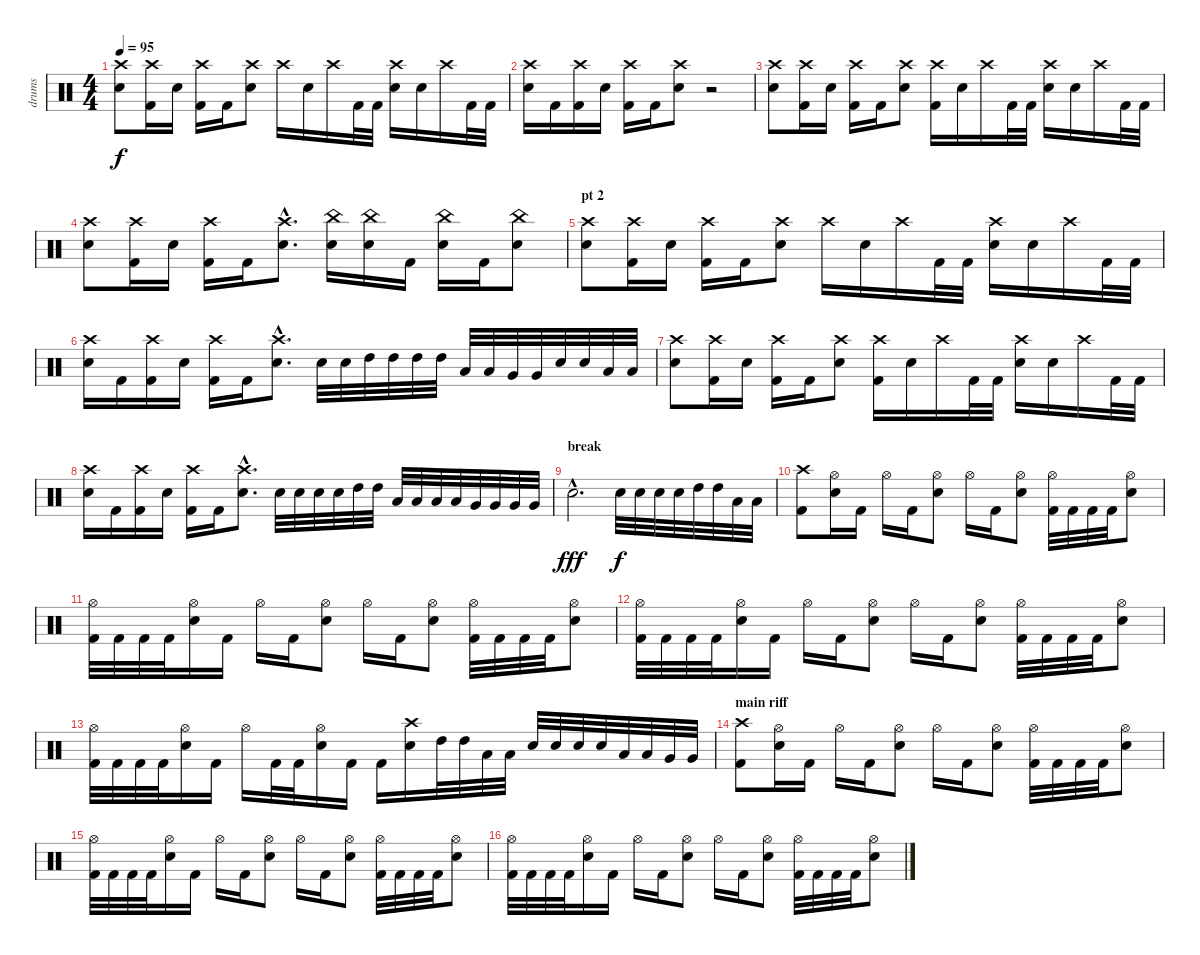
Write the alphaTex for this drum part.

\track ("drums" "drums") {instrument percussion}
\staff {score}
\articulation defaults
\ts (4 4)
\section ("" "")
\tempo 95
\clef neutral
\ks c
("Crash high (hit)" "Electric Snare (hit)").8{dy f} ("Crash high (hit)" "Kick (hit) 2").16 "Electric Snare (hit)".16 ("Crash high (hit)" "Kick (hit) 2").16 "Kick (hit) 2".16 ("Crash high (hit)" "Electric Snare (hit)").8 "Crash high (hit)".16 "Electric Snare (hit)".16 "Crash high (hit)".16 "Kick (hit) 2".32 "Kick (hit) 2".32 ("Crash high (hit)" "Electric Snare (hit)").16 "Electric Snare (hit)".16 "Crash high (hit)".16 "Kick (hit) 2".32 "Kick (hit) 2".32 |
("Crash high (hit)" "Electric Snare (hit)").16 "Kick (hit) 2".16 ("Crash high (hit)" "Kick (hit) 2").16 "Electric Snare (hit)".16 ("Crash high (hit)" "Kick (hit) 2").16 "Kick (hit) 2".16 ("Crash high (hit)" "Electric Snare (hit)").8 r.2 |
("Crash high (hit)" "Electric Snare (hit)").8 ("Crash high (hit)" "Kick (hit) 2").16 "Electric Snare (hit)".16 ("Crash high (hit)" "Kick (hit) 2").16 "Kick (hit) 2".16 ("Crash high (hit)" "Electric Snare (hit)").8 ("Crash high (hit)" "Kick (hit) 2").16 "Electric Snare (hit)".16 "Crash high (hit)".16 "Kick (hit) 2".32 "Kick (hit) 2".32 ("Crash high (hit)" "Electric Snare (hit)").16 "Electric Snare (hit)".16 "Crash high (hit)".16 "Kick (hit) 2".32 "Kick (hit) 2".32 |
("Crash high (hit)" "Electric Snare (hit)").8 ("Crash high (hit)" "Kick (hit) 2").16 "Electric Snare (hit)".16 ("Crash high (hit)" "Kick (hit) 2").16 "Kick (hit) 2".16 ("Crash high (hit)"{hac} "Electric Snare (hit)"{hac}).8{d} ("China (hit)" "Electric Snare (hit)").16 ("China (hit)" "Electric Snare (hit)").16 "Kick (hit) 2".16 ("China (hit)" "Electric Snare (hit)").16 "Kick (hit) 2".16 ("China (hit)" "Electric Snare (hit)").8 |
\section ("" "pt 2")
("Crash high (hit)" "Electric Snare (hit)").8 ("Crash high (hit)" "Kick (hit) 2").16 "Electric Snare (hit)".16 ("Crash high (hit)" "Kick (hit) 2").16 "Kick (hit) 2".16 ("Crash high (hit)" "Electric Snare (hit)").8 "Crash high (hit)".16 "Electric Snare (hit)".16 "Crash high (hit)".16 "Kick (hit) 2".32 "Kick (hit) 2".32 ("Crash high (hit)" "Electric Snare (hit)").16 "Electric Snare (hit)".16 "Crash high (hit)".16 "Kick (hit) 2".32 "Kick (hit) 2".32 |
("Crash high (hit)" "Electric Snare (hit)").16 "Kick (hit) 2".16 ("Crash high (hit)" "Kick (hit) 2").16 "Electric Snare (hit)".16 ("Crash high (hit)" "Kick (hit) 2").16 "Kick (hit) 2".16 ("Crash high (hit)"{hac} "Electric Snare (hit)"{hac}).8{d} "Electric Snare (hit)".32 "Electric Snare (hit)".32 "High Tom (hit)".32 "High Tom (hit)".32 "High Tom (hit)".32 "High Tom (hit)".32 "Low Tom (hit)".32 "Low Tom (hit)".32 "Very Low Tom (hit)".32 "Very Low Tom (hit)".32 "Electric Snare (hit)".32 "Electric Snare (hit)".32 "Low Tom (hit)".32 "Low Tom (hit)".32 |
("Crash high (hit)" "Electric Snare (hit)").8 ("Crash high (hit)" "Kick (hit) 2").16 "Electric Snare (hit)".16 ("Crash high (hit)" "Kick (hit) 2").16 "Kick (hit) 2".16 ("Crash high (hit)" "Electric Snare (hit)").8 ("Crash high (hit)" "Kick (hit) 2").16 "Electric Snare (hit)".16 "Crash high (hit)".16 "Kick (hit) 2".32 "Kick (hit) 2".32 ("Crash high (hit)" "Electric Snare (hit)").16 "Electric Snare (hit)".16 "Crash high (hit)".16 "Kick (hit) 2".32 "Kick (hit) 2".32 |
("Crash high (hit)" "Electric Snare (hit)").16 "Kick (hit) 2".16 ("Crash high (hit)" "Kick (hit) 2").16 "Electric Snare (hit)".16 ("Crash high (hit)" "Kick (hit) 2").16 "Kick (hit) 2".16 ("Crash high (hit)"{hac} "Electric Snare (hit)"{hac}).8{d} "Electric Snare (hit)".32 "Electric Snare (hit)".32 "Electric Snare (hit)".32 "Electric Snare (hit)".32 "High Tom (hit)".32 "High Tom (hit)".32 "Low Tom (hit)".32 "Low Tom (hit)".32 "Low Tom (hit)".32 "Low Tom (hit)".32 "Very Low Tom (hit)".32 "Very Low Tom (hit)".32 "Very Low Tom (hit)".32 "Very Low Tom (hit)".32 |
\section ("" "break")
"Electric Snare (hit)"{hac}.2{d dy fff} "Electric Snare (hit)".32{dy f} "Electric Snare (hit)".32 "Electric Snare (hit)".32 "Electric Snare (hit)".32 "High Tom (hit)".32 "High Tom (hit)".32 "Low Tom (hit)".32 "Low Tom (hit)".32 |
\section ("" "")
("Crash high (hit)" "Kick (hit) 2").8 ("Hi-Hat (open)" "Electric Snare (hit)").16 "Kick (hit) 2".16 "Hi-Hat (open)".16 "Kick (hit) 2".16 ("Hi-Hat (open)" "Electric Snare (hit)").8 "Hi-Hat (open)".16 "Kick (hit) 2".16 ("Hi-Hat (open)" "Electric Snare (hit)").8 ("Hi-Hat (open)" "Kick (hit) 2").32 "Kick (hit) 2".32 "Kick (hit) 2".32 "Kick (hit) 2".32 ("Hi-Hat (open)" "Electric Snare (hit)").8 |
("Hi-Hat (open)" "Kick (hit) 2").32 "Kick (hit) 2".32 "Kick (hit) 2".32 "Kick (hit) 2".32 ("Hi-Hat (open)" "Electric Snare (hit)").16 "Kick (hit) 2".16 "Hi-Hat (open)".16 "Kick (hit) 2".16 ("Hi-Hat (open)" "Electric Snare (hit)").8 "Hi-Hat (open)".16 "Kick (hit) 2".16 ("Hi-Hat (open)" "Electric Snare (hit)").8 ("Hi-Hat (open)" "Kick (hit) 2").32 "Kick (hit) 2".32 "Kick (hit) 2".32 "Kick (hit) 2".32 ("Hi-Hat (open)" "Electric Snare (hit)").8 |
("Hi-Hat (open)" "Kick (hit) 2").32 "Kick (hit) 2".32 "Kick (hit) 2".32 "Kick (hit) 2".32 ("Hi-Hat (open)" "Electric Snare (hit)").16 "Kick (hit) 2".16 "Hi-Hat (open)".16 "Kick (hit) 2".16 ("Hi-Hat (open)" "Electric Snare (hit)").8 "Hi-Hat (open)".16 "Kick (hit) 2".16 ("Hi-Hat (open)" "Electric Snare (hit)").8 ("Hi-Hat (open)" "Kick (hit) 2").32 "Kick (hit) 2".32 "Kick (hit) 2".32 "Kick (hit) 2".32 ("Hi-Hat (open)" "Electric Snare (hit)").8 |
("Hi-Hat (open)" "Kick (hit) 2").32 "Kick (hit) 2".32 "Kick (hit) 2".32 "Kick (hit) 2".32 ("Hi-Hat (open)" "Electric Snare (hit)").16 "Kick (hit) 2".16 "Hi-Hat (open)".16 "Kick (hit) 2".32 "Kick (hit) 2".32 ("Hi-Hat (open)" "Electric Snare (hit)").16 "Kick (hit) 2".16 "Kick (hit) 2".16 ("Crash high (hit)" "Electric Snare (hit)").16 "High Tom (hit)".32 "High Tom (hit)".32 "Low Tom (hit)".32 "Low Tom (hit)".32 "Electric Snare (hit)".32 "Electric Snare (hit)".32 "Electric Snare (hit)".32 "Electric Snare (hit)".32 "Low Tom (hit)".32 "Low Tom (hit)".32 "Very Low Tom (hit)".32 "Very Low Tom (hit)".32 |
\section ("" "main riff")
("Crash high (hit)" "Kick (hit) 2").8 ("Hi-Hat (open)" "Electric Snare (hit)").16 "Kick (hit) 2".16 "Hi-Hat (open)".16 "Kick (hit) 2".16 ("Hi-Hat (open)" "Electric Snare (hit)").8 "Hi-Hat (open)".16 "Kick (hit) 2".16 ("Hi-Hat (open)" "Electric Snare (hit)").8 ("Hi-Hat (open)" "Kick (hit) 2").32 "Kick (hit) 2".32 "Kick (hit) 2".32 "Kick (hit) 2".32 ("Hi-Hat (open)" "Electric Snare (hit)").8 |
("Hi-Hat (open)" "Kick (hit) 2").32 "Kick (hit) 2".32 "Kick (hit) 2".32 "Kick (hit) 2".32 ("Hi-Hat (open)" "Electric Snare (hit)").16 "Kick (hit) 2".16 "Hi-Hat (open)".16 "Kick (hit) 2".16 ("Hi-Hat (open)" "Electric Snare (hit)").8 "Hi-Hat (open)".16 "Kick (hit) 2".16 ("Hi-Hat (open)" "Electric Snare (hit)").8 ("Hi-Hat (open)" "Kick (hit) 2").32 "Kick (hit) 2".32 "Kick (hit) 2".32 "Kick (hit) 2".32 ("Hi-Hat (open)" "Electric Snare (hit)").8 |
("Hi-Hat (open)" "Kick (hit) 2").32 "Kick (hit) 2".32 "Kick (hit) 2".32 "Kick (hit) 2".32 ("Hi-Hat (open)" "Electric Snare (hit)").16 "Kick (hit) 2".16 "Hi-Hat (open)".16 "Kick (hit) 2".16 ("Hi-Hat (open)" "Electric Snare (hit)").8 "Hi-Hat (open)".16 "Kick (hit) 2".16 ("Hi-Hat (open)" "Electric Snare (hit)").8 ("Hi-Hat (open)" "Kick (hit) 2").32 "Kick (hit) 2".32 "Kick (hit) 2".32 "Kick (hit) 2".32 ("Hi-Hat (open)" "Electric Snare (hit)").8
